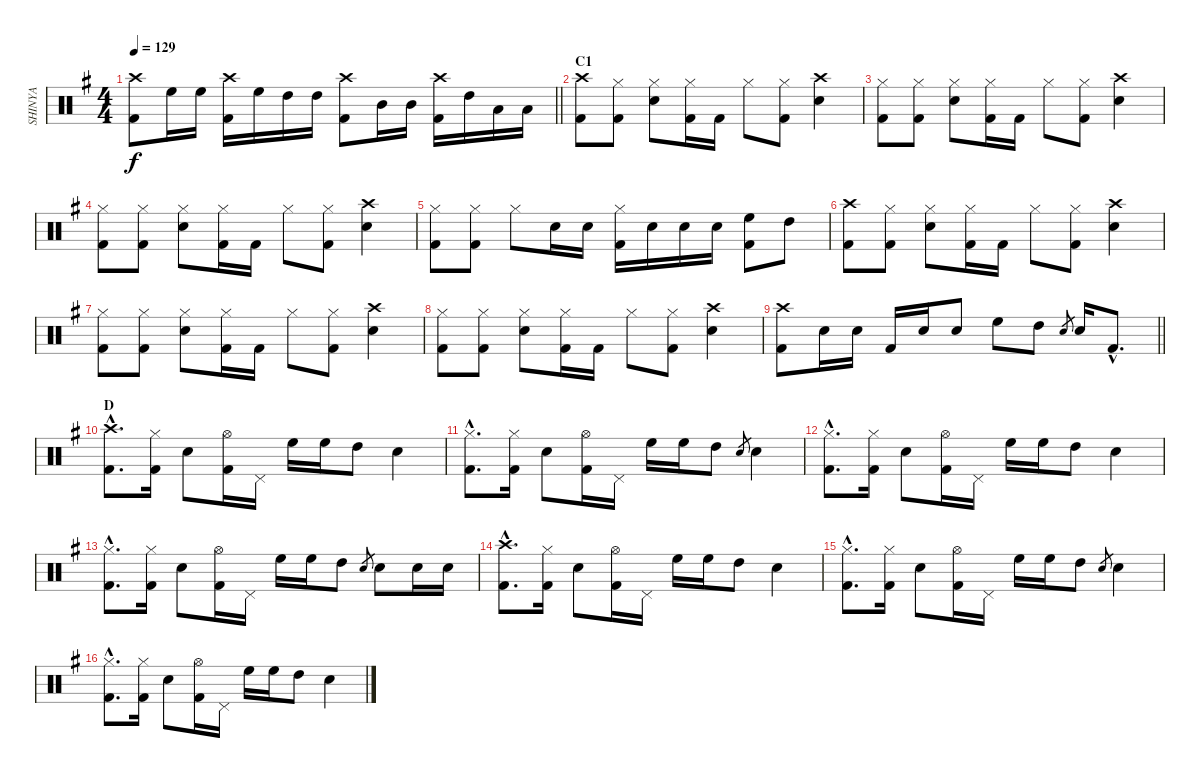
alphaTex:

\track ("SHINYA" "SHINYA") {instrument percussion}
\staff {score}
\articulation defaults
\ts (4 4)
\tempo 129
\clef neutral
\barLineRight lightlight
\ks g
("Crash high (hit)" "Kick (hit) 2").8{dy f} "High Floor Tom (hit)".16 "High Floor Tom (hit)".16 ("Crash high (hit)" "Kick (hit) 2").16 "High Floor Tom (hit)".16 "High Tom (hit)".16 "High Tom (hit)".16 ("Crash high (hit)" "Kick (hit) 2").8 "Mid Tom (hit)".16 "Mid Tom (hit)".16 ("Crash high (hit)" "Kick (hit) 2").16 "High Tom (hit)".16 "Low Tom (hit)".16 "Low Tom (hit)".16 |
\section ("" "C1")
("Crash high (hit)" "Kick (hit) 2").8 ("Hi-Hat (closed)" "Kick (hit) 2").8 ("Hi-Hat (closed)" "Snare (hit) 2").8 ("Hi-Hat (closed)" "Kick (hit) 2").16 "Kick (hit) 2".16 "Hi-Hat (closed)".8 ("Hi-Hat (closed)" "Kick (hit) 2").8 ("Crash high (hit)" "Snare (hit) 2").4 |
("Hi-Hat (closed)" "Kick (hit) 2").8 ("Hi-Hat (closed)" "Kick (hit) 2").8 ("Hi-Hat (closed)" "Snare (hit) 2").8 ("Hi-Hat (closed)" "Kick (hit) 2").16 "Kick (hit) 2".16 "Hi-Hat (closed)".8 ("Hi-Hat (closed)" "Kick (hit) 2").8 ("Crash high (hit)" "Snare (hit) 2").4 |
("Hi-Hat (closed)" "Kick (hit) 2").8 ("Hi-Hat (closed)" "Kick (hit) 2").8 ("Hi-Hat (closed)" "Snare (hit) 2").8 ("Hi-Hat (closed)" "Kick (hit) 2").16 "Kick (hit) 2".16 "Hi-Hat (closed)".8 ("Hi-Hat (closed)" "Kick (hit) 2").8 ("Crash high (hit)" "Snare (hit) 2").4 |
("Hi-Hat (closed)" "Kick (hit) 2").8 ("Hi-Hat (closed)" "Kick (hit) 2").8 "Hi-Hat (closed)".8 "Snare (hit) 2".16 "Snare (hit) 2".16 ("Hi-Hat (closed)" "Kick (hit) 2").16 "Snare (hit) 2".16 "Snare (hit) 2".16 "Snare (hit) 2".16 ("High Floor Tom (hit)" "Kick (hit) 2").8 "High Tom (hit)".8 |
("Crash high (hit)" "Kick (hit) 2").8 ("Hi-Hat (closed)" "Kick (hit) 2").8 ("Hi-Hat (closed)" "Snare (hit) 2").8 ("Hi-Hat (closed)" "Kick (hit) 2").16 "Kick (hit) 2".16 "Hi-Hat (closed)".8 ("Hi-Hat (closed)" "Kick (hit) 2").8 ("Crash high (hit)" "Snare (hit) 2").4 |
("Hi-Hat (closed)" "Kick (hit) 2").8 ("Hi-Hat (closed)" "Kick (hit) 2").8 ("Hi-Hat (closed)" "Snare (hit) 2").8 ("Hi-Hat (closed)" "Kick (hit) 2").16 "Kick (hit) 2".16 "Hi-Hat (closed)".8 ("Hi-Hat (closed)" "Kick (hit) 2").8 ("Crash high (hit)" "Snare (hit) 2").4 |
("Hi-Hat (closed)" "Kick (hit) 2").8 ("Hi-Hat (closed)" "Kick (hit) 2").8 ("Hi-Hat (closed)" "Snare (hit) 2").8 ("Hi-Hat (closed)" "Kick (hit) 2").16 "Kick (hit) 2".16 "Hi-Hat (closed)".8 ("Hi-Hat (closed)" "Kick (hit) 2").8 ("Crash high (hit)" "Snare (hit) 2").4 |
\barLineRight lightlight
("Crash high (hit)" "Kick (hit) 2").8 "Snare (hit) 2".16 "Snare (hit) 2".16 "Kick (hit) 2".16 "Snare (hit) 2".16 "Snare (hit) 2".8 "High Floor Tom (hit)".8 "High Tom (hit)".8 "Snare (hit) 2".8{gr} "Snare (hit) 2".16 "Kick (hit) 2"{hac}.8{d} |
\section ("" "D")
("Crash high (hit)"{hac} "Kick (hit) 2"{hac}).8{d} ("Hi-Hat (closed)" "Kick (hit) 2").16 "Snare (hit) 2".8 ("Hi-Hat (open)" "Kick (hit) 2").16 "Pedal Hi-Hat (hit)".16 "High Floor Tom (hit)".16 "High Floor Tom (hit)".16 "High Tom (hit)".8 "Snare (hit) 2".4 |
("Hi-Hat (closed)"{hac} "Kick (hit) 2"{hac}).8{d} ("Hi-Hat (closed)" "Kick (hit) 2").16 "Snare (hit) 2".8 ("Hi-Hat (open)" "Kick (hit) 2").16 "Pedal Hi-Hat (hit)".16 "High Floor Tom (hit)".16 "High Floor Tom (hit)".16 "High Tom (hit)".8 "Snare (hit) 2".8{gr} "Snare (hit) 2".4 |
("Hi-Hat (closed)"{hac} "Kick (hit) 2"{hac}).8{d} ("Hi-Hat (closed)" "Kick (hit) 2").16 "Snare (hit) 2".8 ("Hi-Hat (open)" "Kick (hit) 2").16 "Pedal Hi-Hat (hit)".16 "High Floor Tom (hit)".16 "High Floor Tom (hit)".16 "High Tom (hit)".8 "Snare (hit) 2".4 |
("Hi-Hat (closed)"{hac} "Kick (hit) 2"{hac}).8{d} ("Hi-Hat (closed)" "Kick (hit) 2").16 "Snare (hit) 2".8 ("Hi-Hat (open)" "Kick (hit) 2").16 "Pedal Hi-Hat (hit)".16 "High Floor Tom (hit)".16 "High Floor Tom (hit)".16 "High Tom (hit)".8 "Snare (hit) 2".8{gr} "Snare (hit) 2".8 "Snare (hit) 2".16 "Snare (hit) 2".16 |
("Crash high (hit)"{hac} "Kick (hit) 2"{hac}).8{d} ("Hi-Hat (closed)" "Kick (hit) 2").16 "Snare (hit) 2".8 ("Hi-Hat (open)" "Kick (hit) 2").16 "Pedal Hi-Hat (hit)".16 "High Floor Tom (hit)".16 "High Floor Tom (hit)".16 "High Tom (hit)".8 "Snare (hit) 2".4 |
("Hi-Hat (closed)"{hac} "Kick (hit) 2"{hac}).8{d} ("Hi-Hat (closed)" "Kick (hit) 2").16 "Snare (hit) 2".8 ("Hi-Hat (open)" "Kick (hit) 2").16 "Pedal Hi-Hat (hit)".16 "High Floor Tom (hit)".16 "High Floor Tom (hit)".16 "High Tom (hit)".8 "Snare (hit) 2".8{gr} "Snare (hit) 2".4 |
("Hi-Hat (closed)"{hac} "Kick (hit) 2"{hac}).8{d} ("Hi-Hat (closed)" "Kick (hit) 2").16 "Snare (hit) 2".8 ("Hi-Hat (open)" "Kick (hit) 2").16 "Pedal Hi-Hat (hit)".16 "High Floor Tom (hit)".16 "High Floor Tom (hit)".16 "High Tom (hit)".8 "Snare (hit) 2".4
